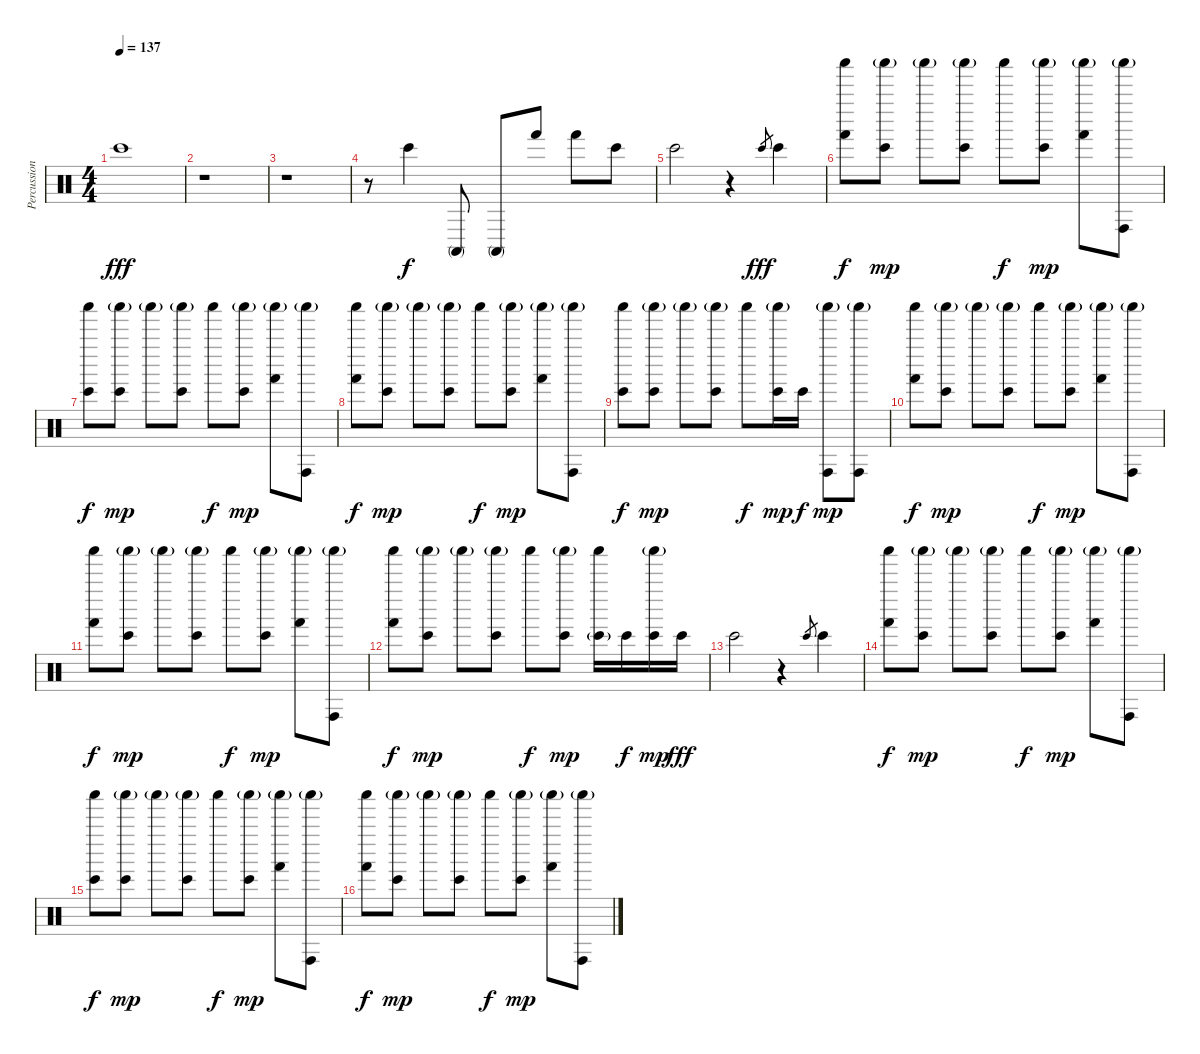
\track ("Percussions" "Percussion") {instrument percussion}
\staff {score}
\articulation defaults
\ts (4 4)
\tempo 137
\clef neutral
\ks c "Bongo High (hit)".1{dy fff}
|
r.1 |
r.1 |
r.8 "Bongo High (hit)".4{dy f} "Conga high (mute)".8 "Conga high (mute)".8 "Hand (hit)".8 "Hand (hit)".8 "Bongo High (hit)".8 |
"Bongo High (hit)".2 r.4 "Bongo High (hit)".8{gr dy fff} "Bongo High (hit)".4 |
("Hand (hit)" "Shaker (hit)").8{dy f} ("Bongo High (hit)" "Shaker (hit)"{g}).8{dy mp} "Shaker (hit)"{g}.8 ("Bongo High (hit)" "Shaker (hit)"{g}).8 "Shaker (hit)".8{dy f} ("Bongo High (hit)" "Shaker (hit)"{g}).8{dy mp} ("Hand (hit)" "Shaker (hit)"{g}).8 ("Conga high (hit)" "Shaker (hit)"{g}).8 |
("Bongo High (hit)" "Shaker (hit)").8{dy f} ("Bongo High (hit)" "Shaker (hit)"{g}).8{dy mp} "Shaker (hit)"{g}.8 ("Bongo High (hit)" "Shaker (hit)"{g}).8 "Shaker (hit)".8{dy f} ("Bongo High (hit)" "Shaker (hit)"{g}).8{dy mp} ("Hand (hit)" "Shaker (hit)"{g}).8 ("Conga high (hit)" "Shaker (hit)"{g}).8 |
("Hand (hit)" "Shaker (hit)").8{dy f} ("Bongo High (hit)" "Shaker (hit)"{g}).8{dy mp} "Shaker (hit)"{g}.8 ("Bongo High (hit)" "Shaker (hit)"{g}).8 "Shaker (hit)".8{dy f} ("Bongo High (hit)" "Shaker (hit)"{g}).8{dy mp} ("Hand (hit)" "Shaker (hit)"{g}).8 ("Conga high (hit)" "Shaker (hit)"{g}).8 |
("Bongo High (hit)" "Shaker (hit)").8{dy f} ("Bongo High (hit)" "Shaker (hit)"{g}).8{dy mp} "Shaker (hit)"{g}.8 ("Bongo High (hit)" "Shaker (hit)"{g}).8 "Shaker (hit)".8{dy f} ("Bongo High (hit)" "Shaker (hit)"{g}).16{dy mp} "Bongo High (hit)".16{dy f} ("Conga high (hit)" "Shaker (hit)"{g}).8{dy mp} ("Conga high (hit)" "Shaker (hit)"{g}).8 |
("Hand (hit)" "Shaker (hit)").8{dy f} ("Bongo High (hit)" "Shaker (hit)"{g}).8{dy mp} "Shaker (hit)"{g}.8 ("Bongo High (hit)" "Shaker (hit)"{g}).8 "Shaker (hit)".8{dy f} ("Bongo High (hit)" "Shaker (hit)"{g}).8{dy mp} ("Hand (hit)" "Shaker (hit)"{g}).8 ("Conga high (hit)" "Shaker (hit)"{g}).8 |
("Hand (hit)" "Shaker (hit)").8{dy f} ("Bongo High (hit)" "Shaker (hit)"{g}).8{dy mp} "Shaker (hit)"{g}.8 ("Bongo High (hit)" "Shaker (hit)"{g}).8 "Shaker (hit)".8{dy f} ("Bongo High (hit)" "Shaker (hit)"{g}).8{dy mp} ("Hand (hit)" "Shaker (hit)"{g}).8 ("Conga high (hit)" "Shaker (hit)"{g}).8 |
("Hand (hit)" "Shaker (hit)").8{dy f} ("Bongo High (hit)" "Shaker (hit)"{g}).8{dy mp} "Shaker (hit)"{g}.8 ("Bongo High (hit)" "Shaker (hit)"{g}).8 "Shaker (hit)".8{dy f} ("Bongo High (hit)" "Shaker (hit)"{g}).8{dy mp} ("Bongo High (hit)"{g} "Shaker (hit)").16 "Bongo High (hit)".16{dy f} ("Bongo High (hit)" "Shaker (hit)"{g}).16{dy mp} "Bongo High (hit)".16{dy fff} |
"Bongo High (hit)".2 r.4 "Bongo High (hit)".8{gr} "Bongo High (hit)".4 |
("Hand (hit)" "Shaker (hit)").8{dy f} ("Bongo High (hit)" "Shaker (hit)"{g}).8{dy mp} "Shaker (hit)"{g}.8 ("Bongo High (hit)" "Shaker (hit)"{g}).8 "Shaker (hit)".8{dy f} ("Bongo High (hit)" "Shaker (hit)"{g}).8{dy mp} ("Hand (hit)" "Shaker (hit)"{g}).8 ("Conga high (hit)" "Shaker (hit)"{g}).8 |
("Bongo High (hit)" "Shaker (hit)").8{dy f} ("Bongo High (hit)" "Shaker (hit)"{g}).8{dy mp} "Shaker (hit)"{g}.8 ("Bongo High (hit)" "Shaker (hit)"{g}).8 "Shaker (hit)".8{dy f} ("Bongo High (hit)" "Shaker (hit)"{g}).8{dy mp} ("Hand (hit)" "Shaker (hit)"{g}).8 ("Conga high (hit)" "Shaker (hit)"{g}).8 |
("Hand (hit)" "Shaker (hit)").8{dy f} ("Bongo High (hit)" "Shaker (hit)"{g}).8{dy mp} "Shaker (hit)"{g}.8 ("Bongo High (hit)" "Shaker (hit)"{g}).8 "Shaker (hit)".8{dy f} ("Bongo High (hit)" "Shaker (hit)"{g}).8{dy mp} ("Hand (hit)" "Shaker (hit)"{g}).8 ("Conga high (hit)" "Shaker (hit)"{g}).8
